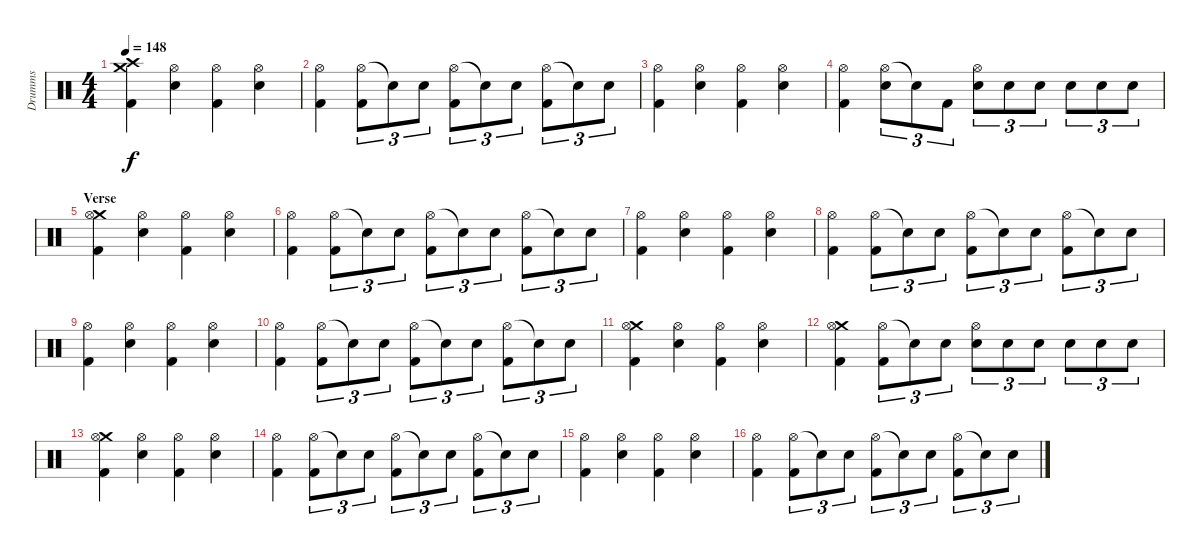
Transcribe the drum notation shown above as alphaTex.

\track ("Drumms" "Drumms") {instrument percussion}
\staff {score}
\articulation defaults
\ts (4 4)
\tempo 148
\clef neutral
\ks c
("Crash high (hit)" "Crash medium (hit)" "Kick (hit) 2").4{dy f} ("Hi-Hat (open)" "Snare (hit) 2").4 ("Hi-Hat (open)" "Kick (hit) 2").4 ("Hi-Hat (open)" "Snare (hit) 2").4 |
("Hi-Hat (open)" "Kick (hit) 2").4 ("Hi-Hat (open)" "Kick (hit) 2").8{tu (3 2)} "Snare (hit)"{t}.8{tu (3 2)} "Snare (hit) 2".8{tu (3 2)} ("Hi-Hat (open)" "Kick (hit) 2").8{tu (3 2)} "Snare (hit)"{t}.8{tu (3 2)} "Snare (hit) 2".8{tu (3 2)} ("Hi-Hat (open)" "Kick (hit) 2").8{tu (3 2)} "Snare (hit) 2"{t}.8{tu (3 2)} "Snare (hit) 2".8{tu (3 2)} |
("Hi-Hat (open)" "Kick (hit) 2").4 ("Hi-Hat (open)" "Snare (hit) 2").4 ("Hi-Hat (open)" "Kick (hit) 2").4 ("Hi-Hat (open)" "Snare (hit) 2").4 |
("Hi-Hat (open)" "Kick (hit) 2").4 ("Hi-Hat (open)" "Snare (hit) 2").8{tu (3 2)} "Snare (hit)"{t}.8{tu (3 2)} "Kick (hit) 2".8{tu (3 2)} ("Hi-Hat (open)" "Snare (hit) 2").8{tu (3 2)} "Snare (hit) 2".8{tu (3 2)} "Snare (hit) 2".8{tu (3 2)} "Snare (hit) 2".8{tu (3 2)} "Snare (hit) 2".8{tu (3 2)} "Snare (hit) 2".8{tu (3 2)} |
\section ("" "Verse")
("Crash medium (hit)" "Hi-Hat (open)" "Kick (hit) 2").4 ("Hi-Hat (open)" "Snare (hit) 2").4 ("Hi-Hat (open)" "Kick (hit) 2").4 ("Hi-Hat (open)" "Snare (hit) 2").4 |
("Hi-Hat (open)" "Kick (hit) 2").4 ("Hi-Hat (open)" "Kick (hit) 2").8{tu (3 2)} "Snare (hit)"{t}.8{tu (3 2)} "Snare (hit) 2".8{tu (3 2)} ("Hi-Hat (open)" "Kick (hit) 2").8{tu (3 2)} "Snare (hit)"{t}.8{tu (3 2)} "Snare (hit) 2".8{tu (3 2)} ("Hi-Hat (open)" "Kick (hit) 2").8{tu (3 2)} "Snare (hit) 2"{t}.8{tu (3 2)} "Snare (hit) 2".8{tu (3 2)} |
("Hi-Hat (open)" "Kick (hit) 2").4 ("Hi-Hat (open)" "Snare (hit) 2").4 ("Hi-Hat (open)" "Kick (hit) 2").4 ("Hi-Hat (open)" "Snare (hit) 2").4 |
("Hi-Hat (open)" "Kick (hit) 2").4 ("Hi-Hat (open)" "Kick (hit) 2").8{tu (3 2)} "Snare (hit)"{t}.8{tu (3 2)} "Snare (hit) 2".8{tu (3 2)} ("Hi-Hat (open)" "Kick (hit) 2").8{tu (3 2)} "Snare (hit)"{t}.8{tu (3 2)} "Snare (hit) 2".8{tu (3 2)} ("Hi-Hat (open)" "Kick (hit) 2").8{tu (3 2)} "Snare (hit) 2"{t}.8{tu (3 2)} "Snare (hit) 2".8{tu (3 2)} |
("Hi-Hat (open)" "Kick (hit) 2").4 ("Hi-Hat (open)" "Snare (hit) 2").4 ("Hi-Hat (open)" "Kick (hit) 2").4 ("Hi-Hat (open)" "Snare (hit) 2").4 |
("Hi-Hat (open)" "Kick (hit) 2").4 ("Hi-Hat (open)" "Kick (hit) 2").8{tu (3 2)} "Snare (hit)"{t}.8{tu (3 2)} "Snare (hit) 2".8{tu (3 2)} ("Hi-Hat (open)" "Kick (hit) 2").8{tu (3 2)} "Snare (hit)"{t}.8{tu (3 2)} "Snare (hit) 2".8{tu (3 2)} ("Hi-Hat (open)" "Kick (hit) 2").8{tu (3 2)} "Snare (hit) 2"{t}.8{tu (3 2)} "Snare (hit) 2".8{tu (3 2)} |
("Crash medium (hit)" "Hi-Hat (open)" "Kick (hit) 2").4 ("Hi-Hat (open)" "Snare (hit) 2").4 ("Hi-Hat (open)" "Kick (hit) 2").4 ("Hi-Hat (open)" "Snare (hit) 2").4 |
("Crash medium (hit)" "Hi-Hat (open)" "Kick (hit) 2").4 ("Hi-Hat (open)" "Kick (hit) 2").8{tu (3 2)} "Snare (hit)"{t}.8{tu (3 2)} "Snare (hit) 2".8{tu (3 2)} ("Hi-Hat (open)" "Snare (hit) 2").8{tu (3 2)} "Snare (hit) 2".8{tu (3 2)} "Snare (hit) 2".8{tu (3 2)} "Snare (hit) 2".8{tu (3 2)} "Snare (hit) 2".8{tu (3 2)} "Snare (hit) 2".8{tu (3 2)} |
("Crash medium (hit)" "Hi-Hat (open)" "Kick (hit) 2").4 ("Hi-Hat (open)" "Snare (hit) 2").4 ("Hi-Hat (open)" "Kick (hit) 2").4 ("Hi-Hat (open)" "Snare (hit) 2").4 |
("Hi-Hat (open)" "Kick (hit) 2").4 ("Hi-Hat (open)" "Kick (hit) 2").8{tu (3 2)} "Snare (hit)"{t}.8{tu (3 2)} "Snare (hit) 2".8{tu (3 2)} ("Hi-Hat (open)" "Kick (hit) 2").8{tu (3 2)} "Snare (hit)"{t}.8{tu (3 2)} "Snare (hit) 2".8{tu (3 2)} ("Hi-Hat (open)" "Kick (hit) 2").8{tu (3 2)} "Snare (hit) 2"{t}.8{tu (3 2)} "Snare (hit) 2".8{tu (3 2)} |
("Hi-Hat (open)" "Kick (hit) 2").4 ("Hi-Hat (open)" "Snare (hit) 2").4 ("Hi-Hat (open)" "Kick (hit) 2").4 ("Hi-Hat (open)" "Snare (hit) 2").4 |
("Hi-Hat (open)" "Kick (hit) 2").4 ("Hi-Hat (open)" "Kick (hit) 2").8{tu (3 2)} "Snare (hit)"{t}.8{tu (3 2)} "Snare (hit) 2".8{tu (3 2)} ("Hi-Hat (open)" "Kick (hit) 2").8{tu (3 2)} "Snare (hit)"{t}.8{tu (3 2)} "Snare (hit) 2".8{tu (3 2)} ("Hi-Hat (open)" "Kick (hit) 2").8{tu (3 2)} "Snare (hit) 2"{t}.8{tu (3 2)} "Snare (hit) 2".8{tu (3 2)}
